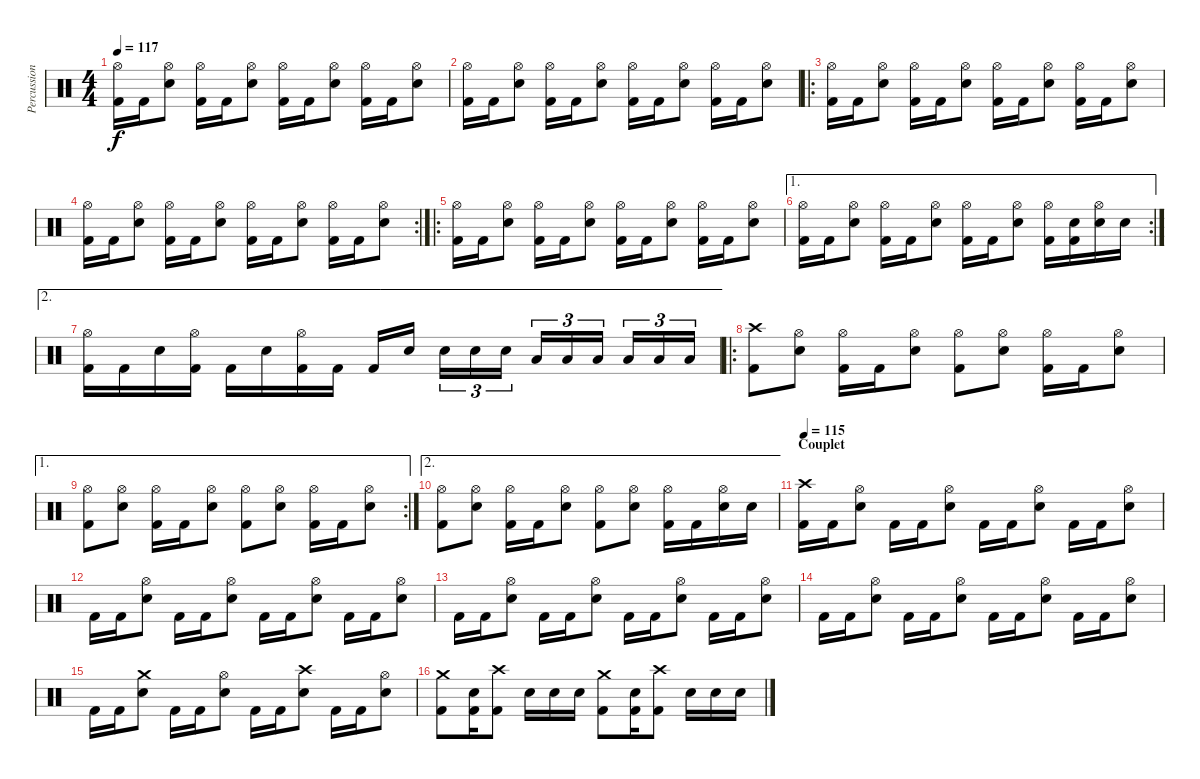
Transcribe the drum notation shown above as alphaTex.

\track ("Percussions" "Percussion") {instrument percussion}
\staff {score}
\articulation defaults
\ts (4 4)
\tempo 117
\clef neutral
\ks c
("Hi-Hat (open)" "Kick (hit) 2").16{dy f} "Kick (hit) 2".16 ("Hi-Hat (open)" "Snare (hit) 2").8 ("Hi-Hat (open)" "Kick (hit) 2").16 "Kick (hit) 2".16 ("Hi-Hat (open)" "Snare (hit) 2").8 ("Hi-Hat (open)" "Kick (hit) 2").16 "Kick (hit) 2".16 ("Hi-Hat (open)" "Snare (hit) 2").8 ("Hi-Hat (open)" "Kick (hit) 2").16 "Kick (hit) 2".16 ("Hi-Hat (open)" "Snare (hit) 2").8 |
("Hi-Hat (open)" "Kick (hit) 2").16 "Kick (hit) 2".16 ("Hi-Hat (open)" "Snare (hit) 2").8 ("Hi-Hat (open)" "Kick (hit) 2").16 "Kick (hit) 2".16 ("Hi-Hat (open)" "Snare (hit) 2").8 ("Hi-Hat (open)" "Kick (hit) 2").16 "Kick (hit) 2".16 ("Hi-Hat (open)" "Snare (hit) 2").8 ("Hi-Hat (open)" "Kick (hit) 2").16 "Kick (hit) 2".16 ("Hi-Hat (open)" "Snare (hit) 2").8 |
\ro
("Hi-Hat (open)" "Kick (hit) 2").16 "Kick (hit) 2".16 ("Hi-Hat (open)" "Snare (hit) 2").8 ("Hi-Hat (open)" "Kick (hit) 2").16 "Kick (hit) 2".16 ("Hi-Hat (open)" "Snare (hit) 2").8 ("Hi-Hat (open)" "Kick (hit) 2").16 "Kick (hit) 2".16 ("Hi-Hat (open)" "Snare (hit) 2").8 ("Hi-Hat (open)" "Kick (hit) 2").16 "Kick (hit) 2".16 ("Hi-Hat (open)" "Snare (hit) 2").8 |
\rc 2
("Hi-Hat (open)" "Kick (hit) 2").16 "Kick (hit) 2".16 ("Hi-Hat (open)" "Snare (hit) 2").8 ("Hi-Hat (open)" "Kick (hit) 2").16 "Kick (hit) 2".16 ("Hi-Hat (open)" "Snare (hit) 2").8 ("Hi-Hat (open)" "Kick (hit) 2").16 "Kick (hit) 2".16 ("Hi-Hat (open)" "Snare (hit) 2").8 ("Hi-Hat (open)" "Kick (hit) 2").16 "Kick (hit) 2".16 ("Hi-Hat (open)" "Snare (hit) 2").8 |
\ro
("Hi-Hat (open)" "Kick (hit) 2").16 "Kick (hit) 2".16 ("Hi-Hat (open)" "Snare (hit) 2").8 ("Hi-Hat (open)" "Kick (hit) 2").16 "Kick (hit) 2".16 ("Hi-Hat (open)" "Snare (hit) 2").8 ("Hi-Hat (open)" "Kick (hit) 2").16 "Kick (hit) 2".16 ("Hi-Hat (open)" "Snare (hit) 2").8 ("Hi-Hat (open)" "Kick (hit) 2").16 "Kick (hit) 2".16 ("Hi-Hat (open)" "Snare (hit) 2").8 |
\ae 1
\rc 2
("Hi-Hat (open)" "Kick (hit) 2").16 "Kick (hit) 2".16 ("Hi-Hat (open)" "Snare (hit) 2").8 ("Hi-Hat (open)" "Kick (hit) 2").16 "Kick (hit) 2".16 ("Hi-Hat (open)" "Snare (hit) 2").8 ("Hi-Hat (open)" "Kick (hit) 2").16 "Kick (hit) 2".16 ("Hi-Hat (open)" "Snare (hit) 2").8 ("Hi-Hat (open)" "Kick (hit) 2").16 ("Snare (hit) 2" "Kick (hit) 2").16 ("Hi-Hat (open)" "Snare (hit) 2").16 "Snare (hit) 2".16 |
\ae 2
("Hi-Hat (open)" "Kick (hit) 2").16 "Kick (hit) 2".16 "Snare (hit) 2".16 ("Hi-Hat (open)" "Kick (hit) 2").16 "Kick (hit) 2".16 "Snare (hit) 2".16 ("Hi-Hat (open)" "Kick (hit) 2").16 "Kick (hit) 2".16 "Kick (hit) 2".16 "Snare (hit) 2".16 "Snare (hit) 2".16{tu (3 2)} "Snare (hit) 2".16{tu (3 2)} "Snare (hit) 2".16{tu (3 2)} "Low Tom (hit)".16{tu (3 2)} "Low Tom (hit)".16{tu (3 2)} "Low Tom (hit)".16{tu (3 2)} "Low Floor Tom (hit)".16{tu (3 2)} "Low Floor Tom (hit)".16{tu (3 2)} "Low Floor Tom (hit)".16{tu (3 2)} |
\ro
("Crash high (hit)" "Kick (hit) 2").8 ("Hi-Hat (open)" "Snare (hit) 2").8 ("Hi-Hat (open)" "Kick (hit) 2").16 "Kick (hit) 2".16 ("Hi-Hat (open)" "Snare (hit) 2").8 ("Hi-Hat (open)" "Kick (hit) 2").8 ("Hi-Hat (open)" "Snare (hit) 2").8 ("Hi-Hat (open)" "Kick (hit) 2").16 "Kick (hit) 2".16 ("Hi-Hat (open)" "Snare (hit) 2").8 |
\ae 1
\rc 2
("Hi-Hat (open)" "Kick (hit) 2").8 ("Hi-Hat (open)" "Snare (hit) 2").8 ("Hi-Hat (open)" "Kick (hit) 2").16 "Kick (hit) 2".16 ("Hi-Hat (open)" "Snare (hit) 2").8 ("Hi-Hat (open)" "Kick (hit) 2").8 ("Hi-Hat (open)" "Snare (hit) 2").8 ("Hi-Hat (open)" "Kick (hit) 2").16 "Kick (hit) 2".16 ("Hi-Hat (open)" "Snare (hit) 2").8 |
\ae 2
("Hi-Hat (open)" "Kick (hit) 2").8 ("Hi-Hat (open)" "Snare (hit) 2").8 ("Hi-Hat (open)" "Kick (hit) 2").16 "Kick (hit) 2".16 ("Hi-Hat (open)" "Snare (hit) 2").8 ("Hi-Hat (open)" "Kick (hit) 2").8 ("Hi-Hat (open)" "Snare (hit) 2").8 ("Hi-Hat (open)" "Kick (hit) 2").16 "Kick (hit) 2".16 ("Hi-Hat (open)" "Snare (hit) 2").16 "Snare (hit) 2".16 |
\section ("" "Couplet")
\tempo 115
("Crash high (hit)" "Kick (hit) 2").16 "Kick (hit) 2".16 ("Hi-Hat (open)" "Snare (hit) 2").8 "Kick (hit) 2".16 "Kick (hit) 2".16 ("Hi-Hat (open)" "Snare (hit) 2").8 "Kick (hit) 2".16 "Kick (hit) 2".16 ("Hi-Hat (open)" "Snare (hit) 2").8 "Kick (hit) 2".16 "Kick (hit) 2".16 ("Hi-Hat (open)" "Snare (hit) 2").8 |
"Kick (hit) 2".16 "Kick (hit) 2".16 ("Hi-Hat (open)" "Snare (hit) 2").8 "Kick (hit) 2".16 "Kick (hit) 2".16 ("Hi-Hat (open)" "Snare (hit) 2").8 "Kick (hit) 2".16 "Kick (hit) 2".16 ("Hi-Hat (open)" "Snare (hit) 2").8 "Kick (hit) 2".16 "Kick (hit) 2".16 ("Hi-Hat (open)" "Snare (hit) 2").8 |
"Kick (hit) 2".16 "Kick (hit) 2".16 ("Hi-Hat (open)" "Snare (hit) 2").8 "Kick (hit) 2".16 "Kick (hit) 2".16 ("Hi-Hat (open)" "Snare (hit) 2").8 "Kick (hit) 2".16 "Kick (hit) 2".16 ("Hi-Hat (open)" "Snare (hit) 2").8 "Kick (hit) 2".16 "Kick (hit) 2".16 ("Hi-Hat (open)" "Snare (hit) 2").8 |
"Kick (hit) 2".16 "Kick (hit) 2".16 ("Hi-Hat (open)" "Snare (hit) 2").8 "Kick (hit) 2".16 "Kick (hit) 2".16 ("Hi-Hat (open)" "Snare (hit) 2").8 "Kick (hit) 2".16 "Kick (hit) 2".16 ("Hi-Hat (open)" "Snare (hit) 2").8 "Kick (hit) 2".16 "Kick (hit) 2".16 ("Hi-Hat (open)" "Snare (hit) 2").8 |
"Kick (hit) 2".16 "Kick (hit) 2".16 ("Crash medium (hit)" "Snare (hit) 2").8 "Kick (hit) 2".16 "Kick (hit) 2".16 ("Hi-Hat (open)" "Snare (hit) 2").8 "Kick (hit) 2".16 "Kick (hit) 2".16 ("Crash high (hit)" "Snare (hit) 2").8 "Kick (hit) 2".16 "Kick (hit) 2".16 ("Hi-Hat (open)" "Snare (hit) 2").8 |
("Crash medium (hit)" "Kick (hit) 2").8 ("Snare (hit) 2" "Kick (hit) 2").16 ("Crash high (hit)" "Kick (hit) 2").8 "Snare (hit) 2".16 "Snare (hit) 2".16 "Snare (hit) 2".16 ("Crash medium (hit)" "Kick (hit) 2").8 ("Snare (hit) 2" "Kick (hit) 2").16 ("Crash high (hit)" "Kick (hit) 2").8 "Snare (hit) 2".16 "Snare (hit) 2".16 "Snare (hit) 2".16
